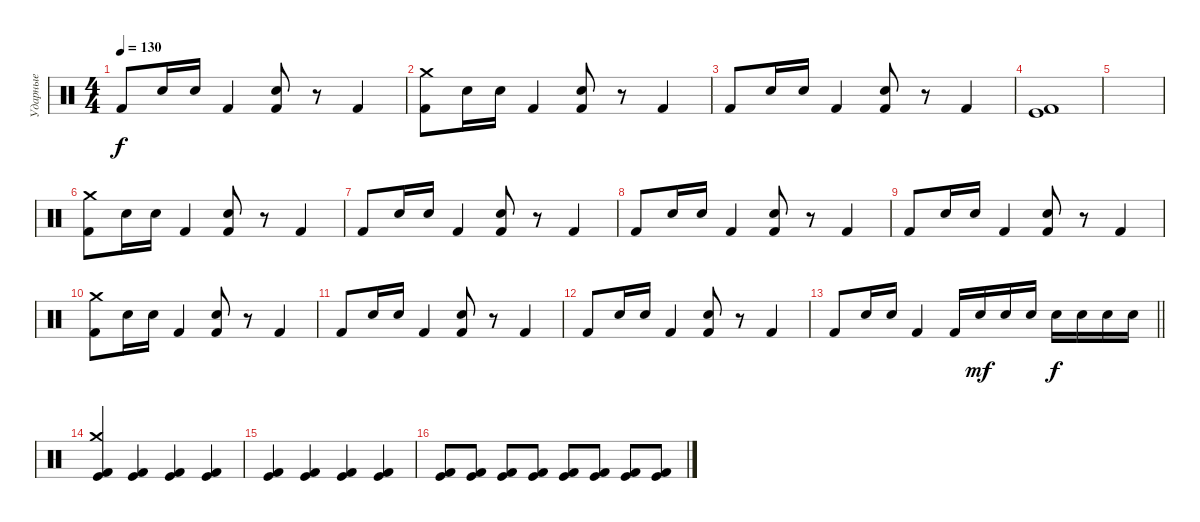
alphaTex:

\track ("Ударные" "Ударные") {instrument percussion}
\staff {score}
\articulation defaults
\ts (4 4)
\tempo 130
\clef neutral
\ks c "Kick (hit) 2".8{dy f} "Electric Snare (hit)".16 "Electric Snare (hit)".16 "Kick (hit) 2".4
("Electric Snare (hit)" "Kick (hit) 2").8 r.8 "Kick (hit) 2".4 |
("Crash medium (hit)" "Kick (hit) 2").8 "Electric Snare (hit)".16 "Electric Snare (hit)".16 "Kick (hit) 2".4 ("Electric Snare (hit)" "Kick (hit) 2").8 r.8 "Kick (hit) 2".4 |
"Kick (hit) 2".8 "Electric Snare (hit)".16 "Electric Snare (hit)".16 "Kick (hit) 2".4 ("Electric Snare (hit)" "Kick (hit) 2").8 r.8 "Kick (hit) 2".4 |
("Kick (hit) 2" "Kick (hit)").1 |
|
("Crash medium (hit)" "Kick (hit) 2").8 "Electric Snare (hit)".16 "Electric Snare (hit)".16 "Kick (hit) 2".4 ("Electric Snare (hit)" "Kick (hit) 2").8 r.8 "Kick (hit) 2".4 |
"Kick (hit) 2".8 "Electric Snare (hit)".16 "Electric Snare (hit)".16 "Kick (hit) 2".4 ("Electric Snare (hit)" "Kick (hit) 2").8 r.8 "Kick (hit) 2".4 |
"Kick (hit) 2".8 "Electric Snare (hit)".16 "Electric Snare (hit)".16 "Kick (hit) 2".4 ("Electric Snare (hit)" "Kick (hit) 2").8 r.8 "Kick (hit) 2".4 |
"Kick (hit) 2".8 "Electric Snare (hit)".16 "Electric Snare (hit)".16 "Kick (hit) 2".4 ("Electric Snare (hit)" "Kick (hit) 2").8 r.8 "Kick (hit) 2".4 |
("Crash medium (hit)" "Kick (hit) 2").8 "Electric Snare (hit)".16 "Electric Snare (hit)".16 "Kick (hit) 2".4 ("Electric Snare (hit)" "Kick (hit) 2").8 r.8 "Kick (hit) 2".4 |
"Kick (hit) 2".8 "Electric Snare (hit)".16 "Electric Snare (hit)".16 "Kick (hit) 2".4 ("Electric Snare (hit)" "Kick (hit) 2").8 r.8 "Kick (hit) 2".4 |
"Kick (hit) 2".8 "Electric Snare (hit)".16 "Electric Snare (hit)".16 "Kick (hit) 2".4 ("Electric Snare (hit)" "Kick (hit) 2").8 r.8 "Kick (hit) 2".4 |
\barLineRight lightlight "Kick (hit) 2".8 "Electric Snare (hit)".16 "Electric Snare (hit)".16 "Kick (hit) 2".4 "Kick (hit) 2".16 "Electric Snare (hit)".16{dy mf} "Electric Snare (hit)".16 "Electric Snare (hit)".16 "Electric Snare (hit)".16{dy f} "Electric Snare (hit)".16 "Electric Snare (hit)".16 "Electric Snare (hit)".16
|
("Kick (hit) 2" "Kick (hit)" "Crash medium (hit)").4 ("Kick (hit) 2" "Kick (hit)").4 ("Kick (hit) 2" "Kick (hit)").4 ("Kick (hit) 2" "Kick (hit)").4 |
("Kick (hit) 2" "Kick (hit)").4 ("Kick (hit) 2" "Kick (hit)").4 ("Kick (hit) 2" "Kick (hit)").4 ("Kick (hit) 2" "Kick (hit)").4 |
("Kick (hit) 2" "Kick (hit)").8 ("Kick (hit) 2" "Kick (hit)").8 ("Kick (hit) 2" "Kick (hit)").8 ("Kick (hit) 2" "Kick (hit)").8 ("Kick (hit) 2" "Kick (hit)").8 ("Kick (hit) 2" "Kick (hit)").8 ("Kick (hit) 2" "Kick (hit)").8 ("Kick (hit) 2" "Kick (hit)").8
